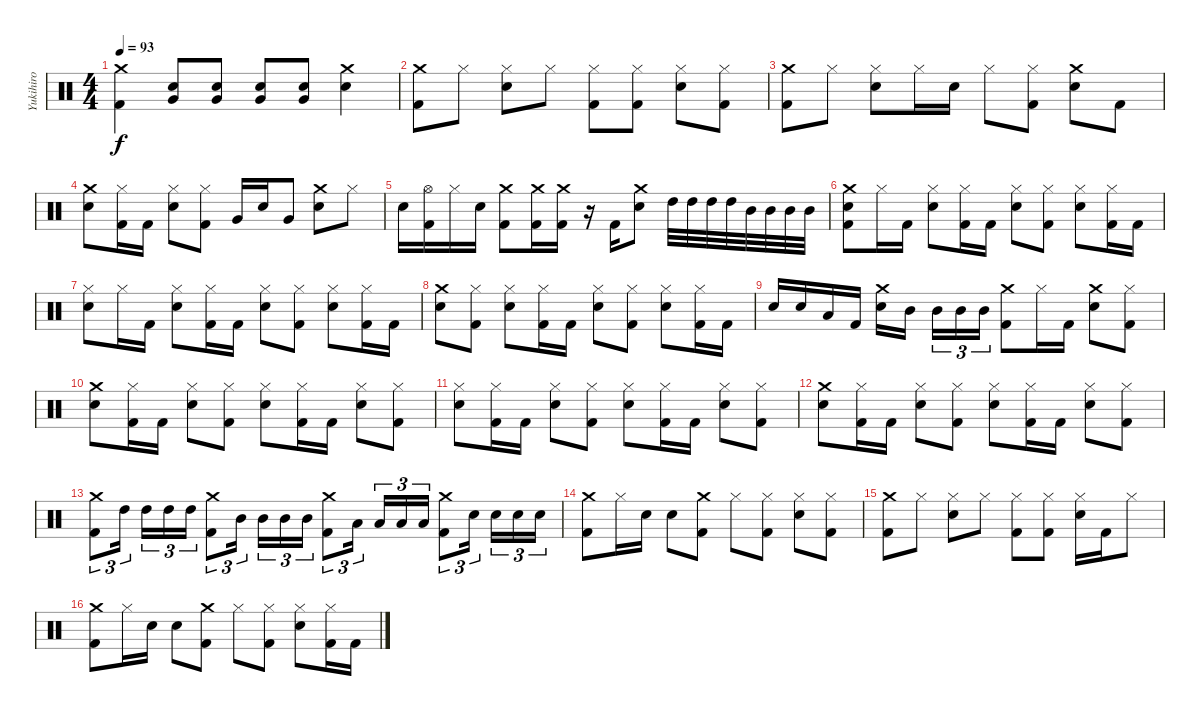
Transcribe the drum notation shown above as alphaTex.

\track ("Yukihiro" "Yukihiro") {instrument percussion}
\staff {score}
\articulation defaults
\ts (4 4)
\tempo 93
\clef neutral
\ks c
("Crash medium (hit)" "Kick (hit) 2").4{dy f} ("Snare (hit) 2" "Very Low Tom (hit)").8 ("Snare (hit) 2" "Very Low Tom (hit)").8 ("Snare (hit) 2" "Very Low Tom (hit)").8 ("Snare (hit) 2" "Very Low Tom (hit)").8 ("Crash medium (hit)" "Snare (hit) 2").4 |
("Crash medium (hit)" "Kick (hit) 2").8 "Hi-Hat (closed)".8 ("Hi-Hat (closed)" "Snare (hit) 2").8 "Hi-Hat (closed)".8 ("Hi-Hat (closed)" "Kick (hit) 2").8 ("Hi-Hat (closed)" "Kick (hit) 2").8 ("Hi-Hat (closed)" "Snare (hit) 2").8 ("Hi-Hat (closed)" "Kick (hit) 2").8 |
("Crash medium (hit)" "Kick (hit) 2").8 "Hi-Hat (closed)".8 ("Hi-Hat (closed)" "Snare (hit) 2").8 "Hi-Hat (closed)".16 "Snare (hit) 2".16 "Hi-Hat (closed)".8 ("Hi-Hat (closed)" "Kick (hit) 2").8 ("Crash medium (hit)" "Snare (hit) 2").8 "Kick (hit) 2".8 |
("Crash medium (hit)" "Snare (hit) 2").8 ("Hi-Hat (closed)" "Kick (hit) 2").16 "Kick (hit) 2".16 ("Hi-Hat (closed)" "Snare (hit) 2").8 ("Hi-Hat (closed)" "Kick (hit) 2").8 "Very Low Tom (hit)".16 "Snare (hit) 2".16 "Very Low Tom (hit)".8 ("Crash medium (hit)" "Snare (hit) 2").8 "Hi-Hat (closed)".8 |
"Snare (hit) 2".16 ("Hi-Hat (open)" "Kick (hit) 2").16 "Hi-Hat (closed)".16 "Snare (hit) 2".16 ("Crash medium (hit)" "Kick (hit) 2").8 ("Crash medium (hit)" "Kick (hit) 2").16 ("Crash medium (hit)" "Kick (hit) 2").16 r.16 "Kick (hit) 2".16 ("Crash medium (hit)" "Snare (hit) 2").8 "High Tom (hit)".32 "High Tom (hit)".32 "High Tom (hit)".32 "High Tom (hit)".32 "Mid Tom (hit)".32 "Mid Tom (hit)".32 "Mid Tom (hit)".32 "Mid Tom (hit)".32 |
("Crash medium (hit)" "Snare (hit) 2" "Kick (hit) 2").8 "Hi-Hat (closed)".16 "Kick (hit) 2".16 ("Hi-Hat (closed)" "Snare (hit) 2").8 ("Hi-Hat (closed)" "Kick (hit) 2").16 "Kick (hit) 2".16 ("Hi-Hat (closed)" "Snare (hit) 2").8 ("Hi-Hat (closed)" "Kick (hit) 2").8 ("Hi-Hat (closed)" "Snare (hit) 2").8 ("Hi-Hat (closed)" "Kick (hit) 2").16 "Kick (hit) 2".16 |
("Hi-Hat (closed)" "Snare (hit) 2").8 "Hi-Hat (closed)".16 "Kick (hit) 2".16 ("Hi-Hat (closed)" "Snare (hit) 2").8 ("Hi-Hat (closed)" "Kick (hit) 2").16 "Kick (hit) 2".16 ("Hi-Hat (closed)" "Snare (hit) 2").8 ("Hi-Hat (closed)" "Kick (hit) 2").8 ("Hi-Hat (closed)" "Snare (hit) 2").8 ("Hi-Hat (closed)" "Kick (hit) 2").16 "Kick (hit) 2".16 |
("Crash medium (hit)" "Snare (hit) 2").8 ("Hi-Hat (closed)" "Kick (hit) 2").8 ("Hi-Hat (closed)" "Snare (hit) 2").8 ("Hi-Hat (closed)" "Kick (hit) 2").16 "Kick (hit) 2".16 ("Hi-Hat (closed)" "Snare (hit) 2").8 ("Hi-Hat (closed)" "Kick (hit) 2").8 ("Hi-Hat (closed)" "Snare (hit) 2").8 ("Hi-Hat (closed)" "Kick (hit) 2").16 "Kick (hit) 2".16 |
"Snare (hit) 2".16 "Snare (hit) 2".16 "Low Tom (hit)".16 "Kick (hit) 2".16 ("Crash medium (hit)" "Snare (hit) 2").16 "Mid Tom (hit)".16 "Mid Tom (hit)".16{tu (3 2)} "Mid Tom (hit)".16{tu (3 2)} "Mid Tom (hit)".16{tu (3 2)} ("Crash medium (hit)" "Kick (hit) 2").8 "Hi-Hat (closed)".16 "Kick (hit) 2".16 ("Crash medium (hit)" "Snare (hit) 2").8 ("Hi-Hat (closed)" "Kick (hit) 2").8 |
("Crash medium (hit)" "Snare (hit) 2").8 ("Hi-Hat (closed)" "Kick (hit) 2").16 "Kick (hit) 2".16 ("Hi-Hat (closed)" "Snare (hit) 2").8 ("Hi-Hat (closed)" "Kick (hit) 2").8 ("Hi-Hat (closed)" "Snare (hit) 2").8 ("Hi-Hat (closed)" "Kick (hit) 2").16 "Kick (hit) 2".16 ("Hi-Hat (closed)" "Snare (hit) 2").8 ("Hi-Hat (closed)" "Kick (hit) 2").8 |
("Hi-Hat (closed)" "Snare (hit) 2").8 ("Hi-Hat (closed)" "Kick (hit) 2").16 "Kick (hit) 2".16 ("Hi-Hat (closed)" "Snare (hit) 2").8 ("Hi-Hat (closed)" "Kick (hit) 2").8 ("Hi-Hat (closed)" "Snare (hit) 2").8 ("Hi-Hat (closed)" "Kick (hit) 2").16 "Kick (hit) 2".16 ("Hi-Hat (closed)" "Snare (hit) 2").8 ("Hi-Hat (closed)" "Kick (hit) 2").8 |
("Crash medium (hit)" "Snare (hit) 2").8 ("Hi-Hat (closed)" "Kick (hit) 2").16 "Kick (hit) 2".16 ("Hi-Hat (closed)" "Snare (hit) 2").8 ("Hi-Hat (closed)" "Kick (hit) 2").8 ("Hi-Hat (closed)" "Snare (hit) 2").8 ("Hi-Hat (closed)" "Kick (hit) 2").16 "Kick (hit) 2".16 ("Hi-Hat (closed)" "Snare (hit) 2").8 ("Hi-Hat (closed)" "Kick (hit) 2").8 |
("Crash medium (hit)" "Kick (hit) 2").8{tu (3 2)} "High Tom (hit)".16{tu (3 2)} "High Tom (hit)".16{tu (3 2)} "High Tom (hit)".16{tu (3 2)} "High Tom (hit)".16{tu (3 2)} ("Crash medium (hit)" "Kick (hit) 2").8{tu (3 2)} "Mid Tom (hit)".16{tu (3 2)} "Mid Tom (hit)".16{tu (3 2)} "Mid Tom (hit)".16{tu (3 2)} "Mid Tom (hit)".16{tu (3 2)} ("Crash medium (hit)" "Kick (hit) 2").8{tu (3 2)} "Low Tom (hit)".16{tu (3 2)} "Low Tom (hit)".16{tu (3 2)} "Low Tom (hit)".16{tu (3 2)} "Low Tom (hit)".16{tu (3 2)} ("Crash medium (hit)" "Kick (hit) 2").8{tu (3 2)} "Snare (hit) 2".16{tu (3 2)} "Snare (hit) 2".16{tu (3 2)} "Snare (hit) 2".16{tu (3 2)} "Snare (hit) 2".16{tu (3 2)} |
("Crash medium (hit)" "Kick (hit) 2").8 "Hi-Hat (closed)".16 "Snare (hit) 2".16 "Snare (hit) 2".8 ("Crash medium (hit)" "Kick (hit) 2").8 "Hi-Hat (closed)".8 ("Hi-Hat (closed)" "Kick (hit) 2").8 ("Hi-Hat (closed)" "Snare (hit) 2").8 ("Hi-Hat (closed)" "Kick (hit) 2").8 |
("Crash medium (hit)" "Kick (hit) 2").8 "Hi-Hat (closed)".8 ("Hi-Hat (closed)" "Snare (hit) 2").8 "Hi-Hat (closed)".8 ("Hi-Hat (closed)" "Kick (hit) 2").8 ("Hi-Hat (closed)" "Kick (hit) 2").8 ("Hi-Hat (closed)" "Snare (hit) 2").16 "Kick (hit) 2".16 "Hi-Hat (closed)".8 |
("Crash medium (hit)" "Kick (hit) 2").8 "Hi-Hat (closed)".16 "Snare (hit) 2".16 "Snare (hit) 2".8 ("Crash medium (hit)" "Kick (hit) 2").8 "Hi-Hat (closed)".8 ("Hi-Hat (closed)" "Kick (hit) 2").8 ("Hi-Hat (closed)" "Snare (hit) 2").8 ("Hi-Hat (closed)" "Kick (hit) 2").16 "Kick (hit) 2".16
